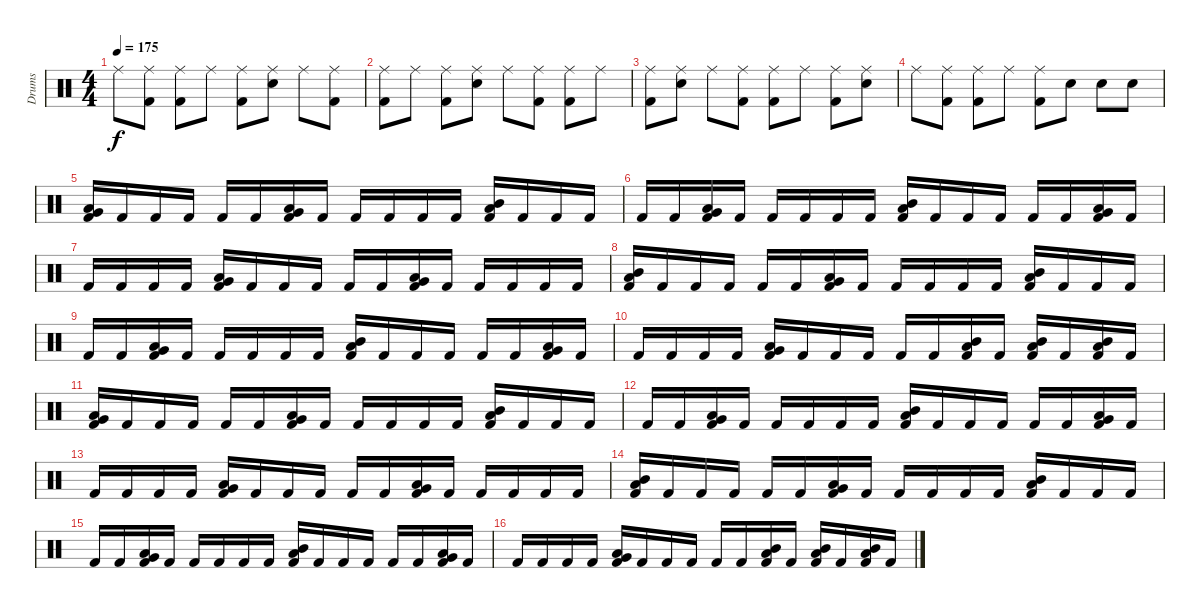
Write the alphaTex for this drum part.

\track ("Drums" "Drums") {instrument percussion}
\staff {score}
\articulation defaults
\ts (4 4)
\tempo 175
\clef neutral
\ks c "Ride (middle)".8{dy f}
("Ride (middle)" "Kick (hit) 2").8 ("Ride (middle)" "Kick (hit) 2").8 "Ride (middle)".8 ("Ride (middle)" "Kick (hit) 2").8 ("Ride (middle)" "Electric Snare (hit)").8 "Ride (middle)".8 ("Ride (middle)" "Kick (hit) 2").8 |
("Ride (middle)" "Kick (hit) 2").8 "Ride (middle)".8 ("Ride (middle)" "Kick (hit) 2").8 ("Ride (middle)" "Electric Snare (hit)").8 "Ride (middle)".8 ("Ride (middle)" "Kick (hit) 2").8 ("Ride (middle)" "Kick (hit) 2").8 "Ride (middle)".8 |
("Ride (middle)" "Kick (hit) 2").8 ("Ride (middle)" "Electric Snare (hit)").8 "Ride (middle)".8 ("Ride (middle)" "Kick (hit) 2").8 ("Ride (middle)" "Kick (hit) 2").8 "Ride (middle)".8 ("Ride (middle)" "Kick (hit) 2").8 ("Ride (middle)" "Electric Snare (hit)").8 |
"Ride (middle)".8 ("Ride (middle)" "Kick (hit) 2").8 ("Ride (middle)" "Kick (hit) 2").8 "Ride (middle)".8 ("Ride (middle)" "Kick (hit) 2").8 "Electric Snare (hit)".8 "Electric Snare (hit)".8 "Electric Snare (hit)".8 |
("Very Low Tom (hit)" "Low Tom (hit)" "Kick (hit) 2").16 "Kick (hit) 2".16 "Kick (hit) 2".16 "Kick (hit) 2".16 "Kick (hit) 2".16 "Kick (hit) 2".16 ("Very Low Tom (hit)" "Low Tom (hit)" "Kick (hit) 2").16 "Kick (hit) 2".16 "Kick (hit) 2".16 "Kick (hit) 2".16 "Kick (hit) 2".16 "Kick (hit) 2".16 ("Low Tom (hit)" "Mid Tom (hit)" "Kick (hit) 2").16 "Kick (hit) 2".16 "Kick (hit) 2".16 "Kick (hit) 2".16 |
"Kick (hit) 2".16 "Kick (hit) 2".16 ("Low Floor Tom (hit)" "Very Low Tom (hit)" "Kick (hit) 2").16 "Kick (hit) 2".16 "Kick (hit) 2".16 "Kick (hit) 2".16 "Kick (hit) 2".16 "Kick (hit) 2".16 ("Low Tom (hit)" "Mid Tom (hit)" "Kick (hit) 2").16 "Kick (hit) 2".16 "Kick (hit) 2".16 "Kick (hit) 2".16 "Kick (hit) 2".16 "Kick (hit) 2".16 ("Very Low Tom (hit)" "Low Tom (hit)" "Kick (hit) 2").16 "Kick (hit) 2".16 |
"Kick (hit) 2".16 "Kick (hit) 2".16 "Kick (hit) 2".16 "Kick (hit) 2".16 ("Very Low Tom (hit)" "Low Tom (hit)" "Kick (hit) 2").16 "Kick (hit) 2".16 "Kick (hit) 2".16 "Kick (hit) 2".16 "Kick (hit) 2".16 "Kick (hit) 2".16 ("Low Floor Tom (hit)" "Very Low Tom (hit)" "Kick (hit) 2").16 "Kick (hit) 2".16 "Kick (hit) 2".16 "Kick (hit) 2".16 "Kick (hit) 2".16 "Kick (hit) 2".16 |
("Low Tom (hit)" "Mid Tom (hit)" "Kick (hit) 2").16 "Kick (hit) 2".16 "Kick (hit) 2".16 "Kick (hit) 2".16 "Kick (hit) 2".16 "Kick (hit) 2".16 ("Very Low Tom (hit)" "Low Tom (hit)" "Kick (hit) 2").16 "Kick (hit) 2".16 "Kick (hit) 2".16 "Kick (hit) 2".16 "Kick (hit) 2".16 "Kick (hit) 2".16 ("Low Tom (hit)" "Mid Tom (hit)" "Kick (hit) 2").16 "Kick (hit) 2".16 "Kick (hit) 2".16 "Kick (hit) 2".16 |
"Kick (hit) 2".16 "Kick (hit) 2".16 ("Low Floor Tom (hit)" "Very Low Tom (hit)" "Kick (hit) 2").16 "Kick (hit) 2".16 "Kick (hit) 2".16 "Kick (hit) 2".16 "Kick (hit) 2".16 "Kick (hit) 2".16 ("Low Tom (hit)" "Mid Tom (hit)" "Kick (hit) 2").16 "Kick (hit) 2".16 "Kick (hit) 2".16 "Kick (hit) 2".16 "Kick (hit) 2".16 "Kick (hit) 2".16 ("Very Low Tom (hit)" "Low Tom (hit)" "Kick (hit) 2").16 "Kick (hit) 2".16 |
"Kick (hit) 2".16 "Kick (hit) 2".16 "Kick (hit) 2".16 "Kick (hit) 2".16 ("Very Low Tom (hit)" "Low Tom (hit)" "Kick (hit) 2").16 "Kick (hit) 2".16 "Kick (hit) 2".16 "Kick (hit) 2".16 "Kick (hit) 2".16 "Kick (hit) 2".16 ("Low Tom (hit)" "Mid Tom (hit)" "Kick (hit) 2").16 "Kick (hit) 2".16 ("Low Tom (hit)" "Mid Tom (hit)" "Kick (hit) 2").16 "Kick (hit) 2".16 ("Low Tom (hit)" "Mid Tom (hit)" "Kick (hit) 2").16 "Kick (hit) 2".16 |
("Very Low Tom (hit)" "Low Tom (hit)" "Kick (hit) 2").16 "Kick (hit) 2".16 "Kick (hit) 2".16 "Kick (hit) 2".16 "Kick (hit) 2".16 "Kick (hit) 2".16 ("Very Low Tom (hit)" "Low Tom (hit)" "Kick (hit) 2").16 "Kick (hit) 2".16 "Kick (hit) 2".16 "Kick (hit) 2".16 "Kick (hit) 2".16 "Kick (hit) 2".16 ("Low Tom (hit)" "Mid Tom (hit)" "Kick (hit) 2").16 "Kick (hit) 2".16 "Kick (hit) 2".16 "Kick (hit) 2".16 |
"Kick (hit) 2".16 "Kick (hit) 2".16 ("Low Floor Tom (hit)" "Very Low Tom (hit)" "Kick (hit) 2").16 "Kick (hit) 2".16 "Kick (hit) 2".16 "Kick (hit) 2".16 "Kick (hit) 2".16 "Kick (hit) 2".16 ("Low Tom (hit)" "Mid Tom (hit)" "Kick (hit) 2").16 "Kick (hit) 2".16 "Kick (hit) 2".16 "Kick (hit) 2".16 "Kick (hit) 2".16 "Kick (hit) 2".16 ("Very Low Tom (hit)" "Low Tom (hit)" "Kick (hit) 2").16 "Kick (hit) 2".16 |
"Kick (hit) 2".16 "Kick (hit) 2".16 "Kick (hit) 2".16 "Kick (hit) 2".16 ("Very Low Tom (hit)" "Low Tom (hit)" "Kick (hit) 2").16 "Kick (hit) 2".16 "Kick (hit) 2".16 "Kick (hit) 2".16 "Kick (hit) 2".16 "Kick (hit) 2".16 ("Low Floor Tom (hit)" "Very Low Tom (hit)" "Kick (hit) 2").16 "Kick (hit) 2".16 "Kick (hit) 2".16 "Kick (hit) 2".16 "Kick (hit) 2".16 "Kick (hit) 2".16 |
("Low Tom (hit)" "Mid Tom (hit)" "Kick (hit) 2").16 "Kick (hit) 2".16 "Kick (hit) 2".16 "Kick (hit) 2".16 "Kick (hit) 2".16 "Kick (hit) 2".16 ("Very Low Tom (hit)" "Low Tom (hit)" "Kick (hit) 2").16 "Kick (hit) 2".16 "Kick (hit) 2".16 "Kick (hit) 2".16 "Kick (hit) 2".16 "Kick (hit) 2".16 ("Low Tom (hit)" "Mid Tom (hit)" "Kick (hit) 2").16 "Kick (hit) 2".16 "Kick (hit) 2".16 "Kick (hit) 2".16 |
"Kick (hit) 2".16 "Kick (hit) 2".16 ("Low Floor Tom (hit)" "Very Low Tom (hit)" "Kick (hit) 2").16 "Kick (hit) 2".16 "Kick (hit) 2".16 "Kick (hit) 2".16 "Kick (hit) 2".16 "Kick (hit) 2".16 ("Low Tom (hit)" "Mid Tom (hit)" "Kick (hit) 2").16 "Kick (hit) 2".16 "Kick (hit) 2".16 "Kick (hit) 2".16 "Kick (hit) 2".16 "Kick (hit) 2".16 ("Very Low Tom (hit)" "Low Tom (hit)" "Kick (hit) 2").16 "Kick (hit) 2".16 |
"Kick (hit) 2".16 "Kick (hit) 2".16 "Kick (hit) 2".16 "Kick (hit) 2".16 ("Very Low Tom (hit)" "Low Tom (hit)" "Kick (hit) 2").16 "Kick (hit) 2".16 "Kick (hit) 2".16 "Kick (hit) 2".16 "Kick (hit) 2".16 "Kick (hit) 2".16 ("Low Tom (hit)" "Mid Tom (hit)" "Kick (hit) 2").16 "Kick (hit) 2".16 ("Low Tom (hit)" "Mid Tom (hit)" "Kick (hit) 2").16 "Kick (hit) 2".16 ("Low Tom (hit)" "Mid Tom (hit)" "Kick (hit) 2").16 "Kick (hit) 2".16
